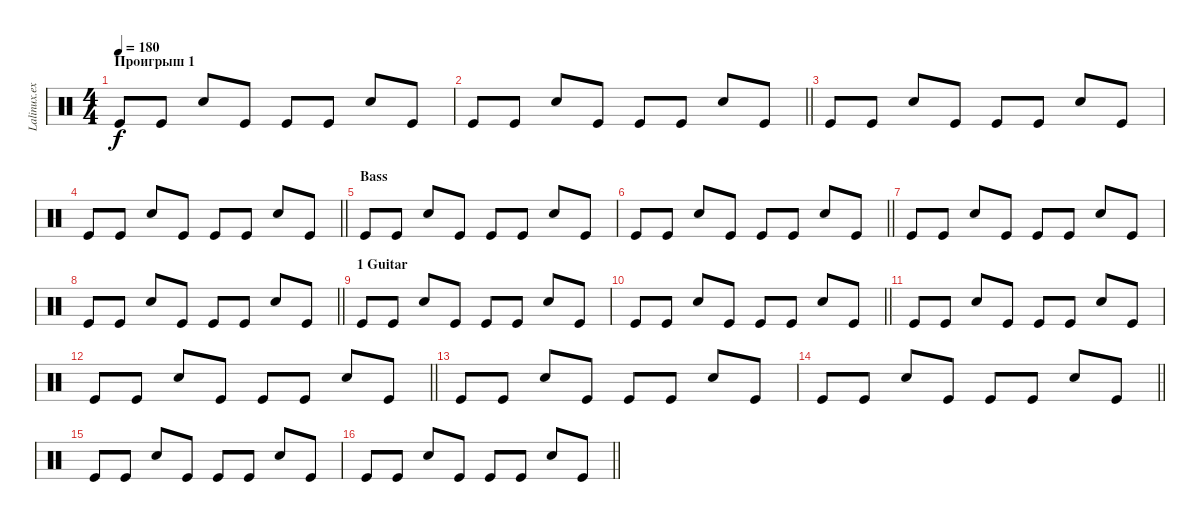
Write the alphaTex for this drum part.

\track ("Lalinux.exe" "Lalinux.ex") {instrument percussion}
\staff {score}
\articulation defaults
\ts (4 4)
\section ("" "Проигрыш 1")
\tempo 180
\clef neutral
\ks c "Kick (hit)".8{dy f} "Kick (hit)".8 "Electric Snare (hit)".8 "Kick (hit)".8 "Kick (hit)".8 "Kick (hit)".8 "Electric Snare (hit)".8 "Kick (hit)".8
|
\barLineRight lightlight "Kick (hit)".8 "Kick (hit)".8 "Electric Snare (hit)".8 "Kick (hit)".8 "Kick (hit)".8 "Kick (hit)".8 "Electric Snare (hit)".8 "Kick (hit)".8
|
"Kick (hit)".8 "Kick (hit)".8 "Electric Snare (hit)".8 "Kick (hit)".8 "Kick (hit)".8 "Kick (hit)".8 "Electric Snare (hit)".8 "Kick (hit)".8 |
\barLineRight lightlight "Kick (hit)".8 "Kick (hit)".8 "Electric Snare (hit)".8 "Kick (hit)".8 "Kick (hit)".8 "Kick (hit)".8 "Electric Snare (hit)".8 "Kick (hit)".8
|
\section ("" "Bass")
"Kick (hit)".8 "Kick (hit)".8 "Electric Snare (hit)".8 "Kick (hit)".8 "Kick (hit)".8 "Kick (hit)".8 "Electric Snare (hit)".8 "Kick (hit)".8 |
\barLineRight lightlight "Kick (hit)".8 "Kick (hit)".8 "Electric Snare (hit)".8 "Kick (hit)".8 "Kick (hit)".8 "Kick (hit)".8 "Electric Snare (hit)".8 "Kick (hit)".8
|
"Kick (hit)".8 "Kick (hit)".8 "Electric Snare (hit)".8 "Kick (hit)".8 "Kick (hit)".8 "Kick (hit)".8 "Electric Snare (hit)".8 "Kick (hit)".8 |
\barLineRight lightlight "Kick (hit)".8 "Kick (hit)".8 "Electric Snare (hit)".8 "Kick (hit)".8 "Kick (hit)".8 "Kick (hit)".8 "Electric Snare (hit)".8 "Kick (hit)".8
|
\section ("" "1 Guitar")
"Kick (hit)".8 "Kick (hit)".8 "Electric Snare (hit)".8 "Kick (hit)".8 "Kick (hit)".8 "Kick (hit)".8 "Electric Snare (hit)".8 "Kick (hit)".8 |
\barLineRight lightlight "Kick (hit)".8 "Kick (hit)".8 "Electric Snare (hit)".8 "Kick (hit)".8 "Kick (hit)".8 "Kick (hit)".8 "Electric Snare (hit)".8 "Kick (hit)".8
|
"Kick (hit)".8 "Kick (hit)".8 "Electric Snare (hit)".8 "Kick (hit)".8 "Kick (hit)".8 "Kick (hit)".8 "Electric Snare (hit)".8 "Kick (hit)".8 |
\barLineRight lightlight "Kick (hit)".8 "Kick (hit)".8 "Electric Snare (hit)".8 "Kick (hit)".8 "Kick (hit)".8 "Kick (hit)".8 "Electric Snare (hit)".8 "Kick (hit)".8
|
"Kick (hit)".8 "Kick (hit)".8 "Electric Snare (hit)".8 "Kick (hit)".8 "Kick (hit)".8 "Kick (hit)".8 "Electric Snare (hit)".8 "Kick (hit)".8 |
\barLineRight lightlight "Kick (hit)".8 "Kick (hit)".8 "Electric Snare (hit)".8 "Kick (hit)".8 "Kick (hit)".8 "Kick (hit)".8 "Electric Snare (hit)".8 "Kick (hit)".8
|
\section ("" "")
"Kick (hit)".8 "Kick (hit)".8 "Electric Snare (hit)".8 "Kick (hit)".8 "Kick (hit)".8 "Kick (hit)".8 "Electric Snare (hit)".8 "Kick (hit)".8 |
\barLineRight lightlight "Kick (hit)".8 "Kick (hit)".8 "Electric Snare (hit)".8 "Kick (hit)".8 "Kick (hit)".8 "Kick (hit)".8 "Electric Snare (hit)".8 "Kick (hit)".8
